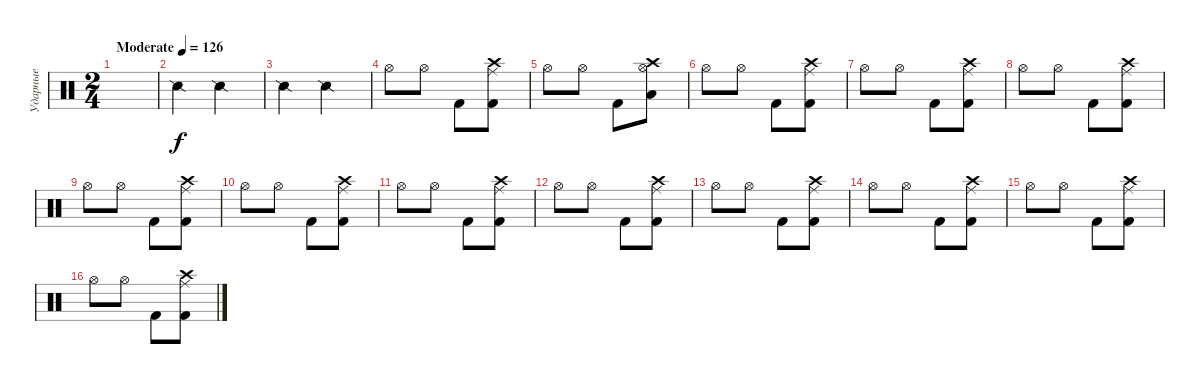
\track ("Ударные" "Ударные") {instrument percussion}
\staff {score}
\articulation defaults
\ts (2 4)
\tempo (126 "Moderate")
\clef neutral
\ks c
|
"Snare (side stick) 2".4 "Snare (side stick) 2".4 |
"Snare (side stick) 2".4 "Snare (side stick) 2".4 |
"Hi-Hat (open)".8 "Hi-Hat (open)".8 "Kick (hit) 2".8 ("Crash high (hit)" "Kick (hit) 2" "Ride (middle)").8 |
"Hi-Hat (open)".8 "Hi-Hat (open)".8 "Kick (hit) 2".8 ("Crash high (hit)" "Low Tom (hit)" "Hi-Hat (open)").8 |
"Hi-Hat (open)".8 "Hi-Hat (open)".8 "Kick (hit) 2".8 ("Crash high (hit)" "Kick (hit) 2" "Ride (middle)").8 |
"Hi-Hat (open)".8 "Hi-Hat (open)".8 "Kick (hit) 2".8 ("Crash high (hit)" "Kick (hit) 2" "Ride (middle)").8 |
"Hi-Hat (open)".8 "Hi-Hat (open)".8 "Kick (hit) 2".8 ("Crash high (hit)" "Kick (hit) 2" "Ride (middle)").8 |
"Hi-Hat (open)".8 "Hi-Hat (open)".8 "Kick (hit) 2".8 ("Crash high (hit)" "Kick (hit) 2" "Ride (middle)").8 |
"Hi-Hat (open)".8 "Hi-Hat (open)".8 "Kick (hit) 2".8 ("Crash high (hit)" "Kick (hit) 2" "Ride (middle)").8 |
"Hi-Hat (open)".8 "Hi-Hat (open)".8 "Kick (hit) 2".8 ("Crash high (hit)" "Kick (hit) 2" "Ride (middle)").8 |
"Hi-Hat (open)".8 "Hi-Hat (open)".8 "Kick (hit) 2".8 ("Crash high (hit)" "Kick (hit) 2" "Ride (middle)").8 |
"Hi-Hat (open)".8 "Hi-Hat (open)".8 "Kick (hit) 2".8 ("Crash high (hit)" "Kick (hit) 2" "Ride (middle)").8 |
"Hi-Hat (open)".8 "Hi-Hat (open)".8 "Kick (hit) 2".8 ("Crash high (hit)" "Kick (hit) 2" "Ride (middle)").8 |
"Hi-Hat (open)".8 "Hi-Hat (open)".8 "Kick (hit) 2".8 ("Crash high (hit)" "Kick (hit) 2" "Ride (middle)").8 |
"Hi-Hat (open)".8 "Hi-Hat (open)".8 "Kick (hit) 2".8 ("Crash high (hit)" "Kick (hit) 2" "Ride (middle)").8
